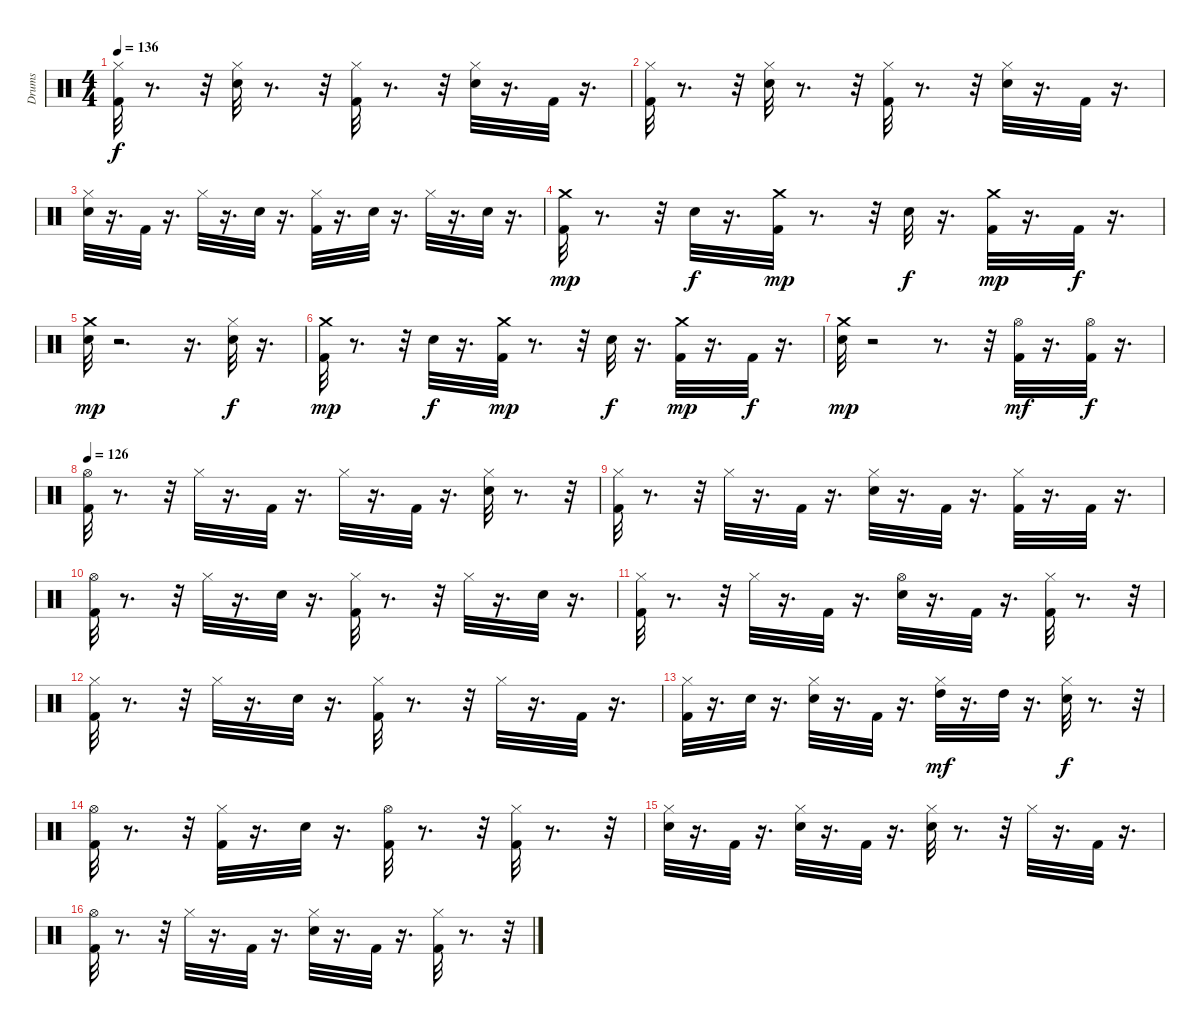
\track ("Drums" "Drums") {instrument percussion}
\staff {score}
\articulation defaults
\ts (4 4)
\tempo 136
\clef neutral
\ks c
("Kick (hit) 2" "Hi-Hat (closed)").32{dy f} r.8{d} r.32 ("Snare (hit) 2" "Hi-Hat (closed)").32 r.8{d} r.32 ("Kick (hit) 2" "Hi-Hat (closed)").32 r.8{d} r.32 ("Snare (hit) 2" "Hi-Hat (closed)").32 r.16{d} "Kick (hit) 2".32 r.16{d} |
("Kick (hit) 2" "Hi-Hat (closed)").32 r.8{d} r.32 ("Snare (hit) 2" "Hi-Hat (closed)").32 r.8{d} r.32 ("Kick (hit) 2" "Hi-Hat (closed)").32 r.8{d} r.32 ("Snare (hit) 2" "Hi-Hat (closed)").32 r.16{d} "Kick (hit) 2".32 r.16{d} |
("Snare (hit) 2" "Hi-Hat (closed)").32 r.16{d} "Kick (hit) 2".32 r.16{d} "Hi-Hat (closed)".32 r.16{d} "Snare (hit) 2".32 r.16{d} ("Kick (hit) 2" "Hi-Hat (closed)").32 r.16{d} "Snare (hit) 2".32 r.16{d} "Hi-Hat (closed)".32 r.16{d} "Snare (hit) 2".32 r.16{d} |
("Kick (hit) 2" "Crash medium (hit)").32{dy mp} r.8{d} r.32 "Snare (hit) 2".32{dy f} r.16{d} ("Kick (hit) 2" "Crash medium (hit)").32{dy mp} r.8{d} r.32 "Snare (hit) 2".32{dy f} r.16{d} ("Kick (hit) 2" "Crash medium (hit)").32{dy mp} r.16{d} "Kick (hit) 2".32{dy f} r.16{d} |
("Snare (hit) 2" "Crash medium (hit)").32{dy mp} r.2{d} r.16{d} ("Snare (hit) 2" "Hi-Hat (closed)").32{dy f} r.16{d} |
("Kick (hit) 2" "Crash medium (hit)").32{dy mp} r.8{d} r.32 "Snare (hit) 2".32{dy f} r.16{d} ("Kick (hit) 2" "Crash medium (hit)").32{dy mp} r.8{d} r.32 "Snare (hit) 2".32{dy f} r.16{d} ("Kick (hit) 2" "Crash medium (hit)").32{dy mp} r.16{d} "Kick (hit) 2".32{dy f} r.16{d} |
("Snare (hit) 2" "Crash medium (hit)").32{dy mp} r.2 r.8{d} r.32 ("Kick (hit) 2" "Hi-Hat (open)").32{dy mf} r.16{d} ("Kick (hit) 2" "Hi-Hat (open)").32{dy f} r.16{d} |
\tempo 126
("Kick (hit) 2" "Hi-Hat (open)").32 r.8{d} r.32 "Hi-Hat (closed)".32 r.16{d} "Kick (hit) 2".32 r.16{d} "Hi-Hat (closed)".32 r.16{d} "Kick (hit) 2".32 r.16{d} ("Snare (hit) 2" "Hi-Hat (closed)").32 r.8{d} r.32 |
("Kick (hit) 2" "Hi-Hat (closed)").32 r.8{d} r.32 "Hi-Hat (closed)".32 r.16{d} "Kick (hit) 2".32 r.16{d} ("Snare (hit) 2" "Hi-Hat (closed)").32 r.16{d} "Kick (hit) 2".32 r.16{d} ("Kick (hit) 2" "Hi-Hat (closed)").32 r.16{d} "Kick (hit) 2".32 r.16{d} |
("Kick (hit) 2" "Hi-Hat (open)").32 r.8{d} r.32 "Hi-Hat (closed)".32 r.16{d} "Snare (hit) 2".32 r.16{d} ("Kick (hit) 2" "Hi-Hat (closed)").32 r.8{d} r.32 "Hi-Hat (closed)".32 r.16{d} "Snare (hit) 2".32 r.16{d} |
("Kick (hit) 2" "Hi-Hat (closed)").32 r.8{d} r.32 "Hi-Hat (closed)".32 r.16{d} "Kick (hit) 2".32 r.16{d} ("Snare (hit) 2" "Hi-Hat (open)").32 r.16{d} "Kick (hit) 2".32 r.16{d} ("Kick (hit) 2" "Hi-Hat (closed)").32 r.8{d} r.32 |
("Kick (hit) 2" "Hi-Hat (closed)").32 r.8{d} r.32 "Hi-Hat (closed)".32 r.16{d} "Snare (hit) 2".32 r.16{d} ("Kick (hit) 2" "Hi-Hat (closed)").32 r.8{d} r.32 "Hi-Hat (closed)".32 r.16{d} "Kick (hit) 2".32 r.16{d} |
("Kick (hit) 2" "Hi-Hat (closed)").32 r.16{d} "Snare (hit) 2".32 r.16{d} ("Snare (hit) 2" "Hi-Hat (closed)").32 r.16{d} "Kick (hit) 2".32 r.16{d} ("Hi-Hat (closed)" "High Tom (hit)").32{dy mf} r.16{d} "High Tom (hit)".32 r.16{d} ("Snare (hit) 2" "Hi-Hat (closed)").32{dy f} r.8{d} r.32 |
("Kick (hit) 2" "Hi-Hat (open)").32 r.8{d} r.32 ("Kick (hit) 2" "Hi-Hat (closed)").32 r.16{d} "Snare (hit) 2".32 r.16{d} ("Kick (hit) 2" "Hi-Hat (open)").32 r.8{d} r.32 ("Kick (hit) 2" "Hi-Hat (closed)").32 r.8{d} r.32 |
("Snare (hit) 2" "Hi-Hat (closed)").32 r.16{d} "Kick (hit) 2".32 r.16{d} ("Snare (hit) 2" "Hi-Hat (closed)").32 r.16{d} "Kick (hit) 2".32 r.16{d} ("Snare (hit) 2" "Hi-Hat (closed)").32 r.8{d} r.32 "Hi-Hat (closed)".32 r.16{d} "Kick (hit) 2".32 r.16{d} |
("Kick (hit) 2" "Hi-Hat (open)").32 r.8{d} r.32 "Hi-Hat (closed)".32 r.16{d} "Kick (hit) 2".32 r.16{d} ("Snare (hit) 2" "Hi-Hat (closed)").32 r.16{d} "Kick (hit) 2".32 r.16{d} ("Kick (hit) 2" "Hi-Hat (closed)").32 r.8{d} r.32
